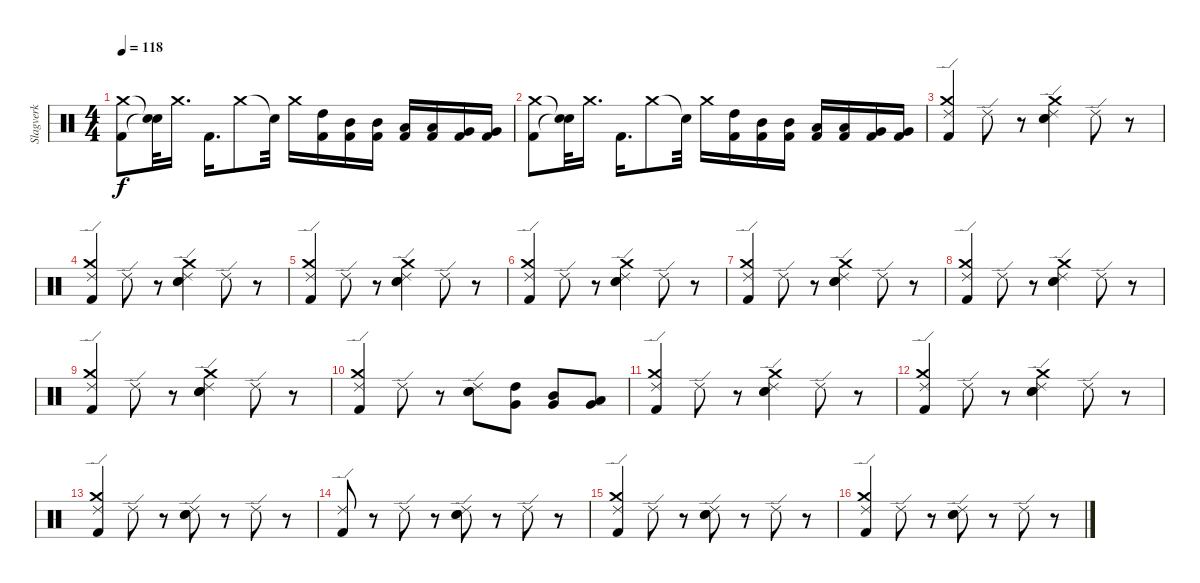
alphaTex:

\track ("Slagverk" "Slagverk") {instrument percussion}
\staff {score}
\articulation defaults
\ts (4 4)
\tempo 118
\clef neutral
\ks c
("Kick (hit) 2" "Crash medium (hit)").8{dy f volume 6} ("Snare (hit)"{t} "Snare (hit)"{t}).32 "Crash medium (hit)".16{d} "Kick (hit) 2".16{d} "Crash medium (hit)".8 "Snare (hit)"{t}.32 "Crash medium (hit)".16{volume 6} ("High Tom (hit)" "Kick (hit) 2").16 ("Mid Tom (hit)" "Kick (hit) 2").16 ("Mid Tom (hit)" "Kick (hit) 2").16 ("Low Tom (hit)" "Kick (hit) 2").16 ("Low Tom (hit)" "Kick (hit) 2").16{volume 6} ("Very Low Tom (hit)" "Kick (hit) 2").16 ("Very Low Tom (hit)" "Kick (hit) 2").16 |
("Kick (hit) 2" "Crash medium (hit)").8 ("Snare (hit)"{t} "Snare (hit)"{t}).32 "Crash medium (hit)".16{d volume 6} "Kick (hit) 2".16{d} "Crash medium (hit)".8 "Snare (hit)"{t}.32 "Crash medium (hit)".16 ("High Tom (hit)" "Kick (hit) 2").16{volume 5} ("Mid Tom (hit)" "Kick (hit) 2").16 ("Mid Tom (hit)" "Kick (hit) 2").16 ("Low Tom (hit)" "Kick (hit) 2").16 ("Low Tom (hit)" "Kick (hit) 2").16 ("Very Low Tom (hit)" "Kick (hit) 2").16 ("Very Low Tom (hit)" "Kick (hit) 2").16{volume 5} |
("Crash medium (hit)" "Kick (hit) 2" "Ride (edge) 2").4 "Ride (edge) 2".8 r.8 ("Crash medium (hit)" "Electric Snare (hit)" "Snare (hit) 2" "Ride (edge) 2").4{volume 5} "Ride (edge) 2".8{volume 5} r.8 |
("Crash medium (hit)" "Kick (hit) 2" "Ride (edge) 2").4 "Ride (edge) 2".8{volume 5} r.8 ("Crash medium (hit)" "Electric Snare (hit)" "Snare (hit) 2" "Ride (edge) 2").4{volume 5} "Ride (edge) 2".8 r.8 |
("Crash medium (hit)" "Kick (hit) 2" "Ride (edge) 2").4{volume 5} "Ride (edge) 2".8{volume 4} r.8 ("Crash medium (hit)" "Electric Snare (hit)" "Snare (hit) 2" "Ride (edge) 2").4 "Ride (edge) 2".8{volume 4} r.8 |
("Crash medium (hit)" "Kick (hit) 2" "Ride (edge) 2").4{volume 4} "Ride (edge) 2".8 r.8 ("Crash medium (hit)" "Electric Snare (hit)" "Snare (hit) 2" "Ride (edge) 2").4{volume 4} "Ride (edge) 2".8{volume 4} r.8 |
("Crash medium (hit)" "Kick (hit) 2" "Ride (edge) 2").4 "Ride (edge) 2".8{volume 4} r.8 ("Crash medium (hit)" "Electric Snare (hit)" "Snare (hit) 2" "Ride (edge) 2").4 "Ride (edge) 2".8{volume 4} r.8 |
("Crash medium (hit)" "Kick (hit) 2" "Ride (edge) 2").4{volume 4} "Ride (edge) 2".8 r.8 ("Crash medium (hit)" "Electric Snare (hit)" "Snare (hit) 2" "Ride (edge) 2").4{volume 4} "Ride (edge) 2".8{volume 3} r.8 |
("Crash medium (hit)" "Kick (hit) 2" "Ride (edge) 2").4 "Ride (edge) 2".8{volume 3} r.8 ("Crash medium (hit)" "Electric Snare (hit)" "Snare (hit) 2" "Ride (edge) 2").4{volume 3} "Ride (edge) 2".8 r.8 |
("Crash medium (hit)" "Kick (hit) 2" "Ride (edge) 2").4{volume 3} "Ride (edge) 2".8{volume 3} r.8 ("Electric Snare (hit)" "Snare (hit) 2" "Ride (edge) 2").8 ("Very Low Tom (hit)" "High Tom (hit)").8{volume 3} ("Mid Tom (hit)" "Very Low Tom (hit)").8 ("Low Tom (hit)" "Very Low Tom (hit)").8 |
("Crash medium (hit)" "Kick (hit) 2" "Ride (edge) 2").4{volume 3} "Ride (edge) 2".8 r.8 ("Crash medium (hit)" "Electric Snare (hit)" "Snare (hit) 2" "Ride (edge) 2").4{volume 2} "Ride (edge) 2".8{volume 2} r.8 |
("Crash medium (hit)" "Kick (hit) 2" "Ride (edge) 2").4 "Ride (edge) 2".8{volume 2} r.8 ("Crash medium (hit)" "Electric Snare (hit)" "Snare (hit) 2" "Ride (edge) 2").4{volume 2} "Ride (edge) 2".8 r.8 |
("Crash medium (hit)" "Kick (hit) 2" "Ride (edge) 2").4{volume 2} "Ride (edge) 2".8 r.8 ("Electric Snare (hit)" "Snare (hit) 2" "Ride (edge) 2").8{volume 2} r.8 "Ride (edge) 2".8{volume 2} r.8 |
("Kick (hit) 2" "Ride (edge) 2").8 r.8 "Ride (edge) 2".8{volume 2} r.8 ("Electric Snare (hit)" "Snare (hit) 2" "Ride (edge) 2").8{volume 2} r.8 "Ride (edge) 2".8 r.8 |
("Crash medium (hit)" "Kick (hit) 2" "Ride (edge) 2").4{volume 1} "Ride (edge) 2".8{volume 1} r.8 ("Electric Snare (hit)" "Snare (hit) 2" "Ride (edge) 2").8 r.8 "Ride (edge) 2".8{volume 1} r.8 |
("Crash medium (hit)" "Kick (hit) 2" "Ride (edge) 2").4{volume 1} "Ride (edge) 2".8 r.8 ("Electric Snare (hit)" "Snare (hit) 2" "Ride (edge) 2").8{volume 1} r.8 "Ride (edge) 2".8{volume 1} r.8
